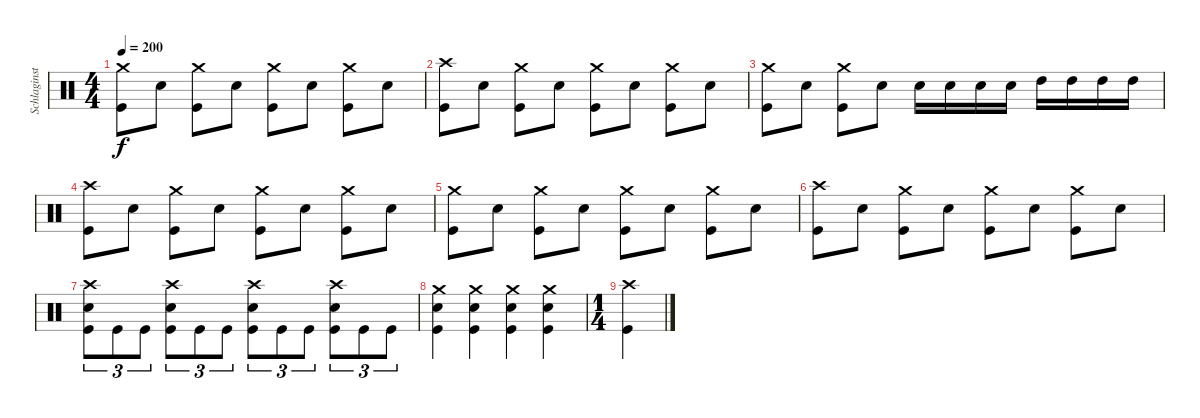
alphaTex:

\track ("Schlaginstrumente - Auswahl" "Schlaginst") {instrument percussion}
\staff {score}
\articulation defaults
\ts (4 4)
\tempo 200
\clef neutral
\ks c
("Crash medium (hit)" "Kick (hit)").8{dy f} "Electric Snare (hit)".8 ("Crash medium (hit)" "Kick (hit)").8 "Electric Snare (hit)".8 ("Crash medium (hit)" "Kick (hit)").8 "Electric Snare (hit)".8 ("Crash medium (hit)" "Kick (hit)").8 "Electric Snare (hit)".8 |
("Crash high (hit)" "Kick (hit)").8 "Electric Snare (hit)".8 ("Crash medium (hit)" "Kick (hit)").8 "Electric Snare (hit)".8 ("Crash medium (hit)" "Kick (hit)").8 "Electric Snare (hit)".8 ("Crash medium (hit)" "Kick (hit)").8 "Electric Snare (hit)".8 |
("Crash medium (hit)" "Kick (hit)").8 "Electric Snare (hit)".8 ("Crash medium (hit)" "Kick (hit)").8 "Electric Snare (hit)".8 "Electric Snare (hit)".16 "Electric Snare (hit)".16 "Electric Snare (hit)".16 "Electric Snare (hit)".16 "High Tom (hit)".16 "High Tom (hit)".16 "High Tom (hit)".16 "High Tom (hit)".16 |
("Crash high (hit)" "Kick (hit)").8 "Electric Snare (hit)".8 ("Crash medium (hit)" "Kick (hit)").8 "Electric Snare (hit)".8 ("Crash medium (hit)" "Kick (hit)").8 "Electric Snare (hit)".8 ("Crash medium (hit)" "Kick (hit)").8 "Electric Snare (hit)".8 |
("Crash medium (hit)" "Kick (hit)").8 "Electric Snare (hit)".8 ("Crash medium (hit)" "Kick (hit)").8 "Electric Snare (hit)".8 ("Crash medium (hit)" "Kick (hit)").8 "Electric Snare (hit)".8 ("Crash medium (hit)" "Kick (hit)").8 "Electric Snare (hit)".8 |
("Crash high (hit)" "Kick (hit)").8 "Electric Snare (hit)".8 ("Crash medium (hit)" "Kick (hit)").8 "Electric Snare (hit)".8 ("Crash medium (hit)" "Kick (hit)").8 "Electric Snare (hit)".8 ("Crash medium (hit)" "Kick (hit)").8 "Electric Snare (hit)".8 |
("Crash high (hit)" "Electric Snare (hit)" "Kick (hit)").8{tu (3 2)} "Kick (hit)".8{tu (3 2)} "Kick (hit)".8{tu (3 2)} ("Crash high (hit)" "Electric Snare (hit)" "Kick (hit)").8{tu (3 2)} "Kick (hit)".8{tu (3 2)} "Kick (hit)".8{tu (3 2)} ("Crash high (hit)" "Electric Snare (hit)" "Kick (hit)").8{tu (3 2)} "Kick (hit)".8{tu (3 2)} "Kick (hit)".8{tu (3 2)} ("Crash high (hit)" "Electric Snare (hit)" "Kick (hit)").8{tu (3 2)} "Kick (hit)".8{tu (3 2)} "Kick (hit)".8{tu (3 2)} |
("Crash medium (hit)" "Electric Snare (hit)" "Kick (hit)").4 ("Crash medium (hit)" "Electric Snare (hit)" "Kick (hit)").4 ("Crash medium (hit)" "Electric Snare (hit)" "Kick (hit)").4 ("Crash medium (hit)" "Electric Snare (hit)" "Kick (hit)").4 |
\ts (1 4)
("Crash high (hit)" "Kick (hit)").4
